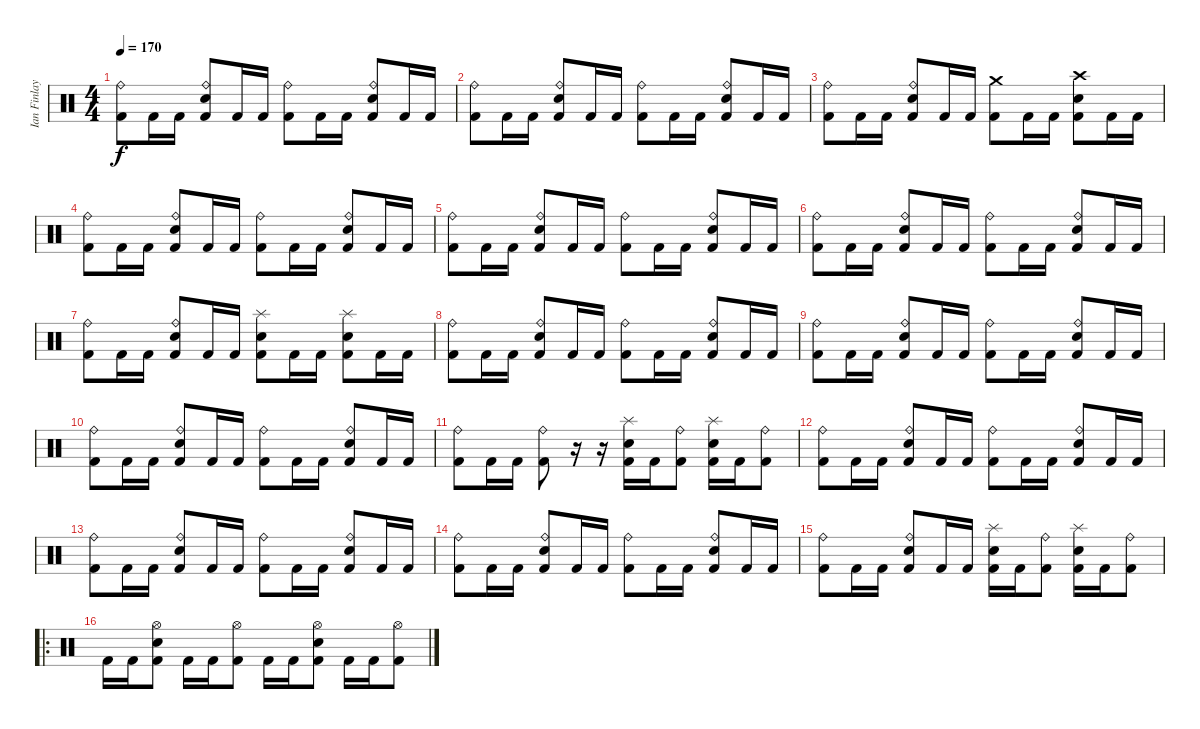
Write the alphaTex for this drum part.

\track ("Ian Finlay (Drums)" "Ian Finlay") {instrument percussion}
\staff {score}
\articulation defaults
\ts (4 4)
\tempo 170
\clef neutral
\ks c
("Kick (hit) 2" "Ride (bell)").8{dy f} "Kick (hit) 2".16 "Kick (hit) 2".16 ("Kick (hit) 2" "Snare (hit) 2" "Ride (bell)").8 "Kick (hit) 2".16 "Kick (hit) 2".16 ("Kick (hit) 2" "Ride (bell)").8 "Kick (hit) 2".16 "Kick (hit) 2".16 ("Kick (hit) 2" "Snare (hit) 2" "Ride (bell)").8 "Kick (hit) 2".16 "Kick (hit) 2".16 |
("Kick (hit) 2" "Ride (bell)").8 "Kick (hit) 2".16 "Kick (hit) 2".16 ("Kick (hit) 2" "Snare (hit) 2" "Ride (bell)").8 "Kick (hit) 2".16 "Kick (hit) 2".16 ("Kick (hit) 2" "Ride (bell)").8 "Kick (hit) 2".16 "Kick (hit) 2".16 ("Kick (hit) 2" "Snare (hit) 2" "Ride (bell)").8 "Kick (hit) 2".16 "Kick (hit) 2".16 |
("Kick (hit) 2" "Ride (bell)").8 "Kick (hit) 2".16 "Kick (hit) 2".16 ("Kick (hit) 2" "Snare (hit) 2" "Ride (bell)").8 "Kick (hit) 2".16 "Kick (hit) 2".16 ("Kick (hit) 2" "Crash medium (hit)").8 "Kick (hit) 2".16 "Kick (hit) 2".16 ("Kick (hit) 2" "Snare (hit) 2" "Crash high (hit)").8 "Kick (hit) 2".16 "Kick (hit) 2".16 |
("Kick (hit) 2" "Ride (bell)").8 "Kick (hit) 2".16 "Kick (hit) 2".16 ("Kick (hit) 2" "Snare (hit) 2" "Ride (bell)").8 "Kick (hit) 2".16 "Kick (hit) 2".16 ("Kick (hit) 2" "Ride (bell)").8 "Kick (hit) 2".16 "Kick (hit) 2".16 ("Kick (hit) 2" "Snare (hit) 2" "Ride (bell)").8 "Kick (hit) 2".16 "Kick (hit) 2".16 |
("Kick (hit) 2" "Ride (bell)").8 "Kick (hit) 2".16 "Kick (hit) 2".16 ("Kick (hit) 2" "Snare (hit) 2" "Ride (bell)").8 "Kick (hit) 2".16 "Kick (hit) 2".16 ("Kick (hit) 2" "Ride (bell)").8 "Kick (hit) 2".16 "Kick (hit) 2".16 ("Kick (hit) 2" "Snare (hit) 2" "Ride (bell)").8 "Kick (hit) 2".16 "Kick (hit) 2".16 |
("Kick (hit) 2" "Ride (bell)").8 "Kick (hit) 2".16 "Kick (hit) 2".16 ("Kick (hit) 2" "Snare (hit) 2" "Ride (bell)").8 "Kick (hit) 2".16 "Kick (hit) 2".16 ("Kick (hit) 2" "Ride (bell)").8 "Kick (hit) 2".16 "Kick (hit) 2".16 ("Kick (hit) 2" "Snare (hit) 2" "Ride (bell)").8 "Kick (hit) 2".16 "Kick (hit) 2".16 |
("Kick (hit) 2" "Ride (bell)").8 "Kick (hit) 2".16 "Kick (hit) 2".16 ("Kick (hit) 2" "Snare (hit) 2" "Ride (bell)").8 "Kick (hit) 2".16 "Kick (hit) 2".16 ("Kick (hit) 2" "Snare (hit) 2" "Splash (hit)").8 "Kick (hit) 2".16 "Kick (hit) 2".16 ("Kick (hit) 2" "Snare (hit) 2" "Splash (hit)").8 "Kick (hit) 2".16 "Kick (hit) 2".16 |
("Kick (hit) 2" "Ride (bell)").8 "Kick (hit) 2".16 "Kick (hit) 2".16 ("Kick (hit) 2" "Snare (hit) 2" "Ride (bell)").8 "Kick (hit) 2".16 "Kick (hit) 2".16 ("Kick (hit) 2" "Ride (bell)").8 "Kick (hit) 2".16 "Kick (hit) 2".16 ("Kick (hit) 2" "Snare (hit) 2" "Ride (bell)").8 "Kick (hit) 2".16 "Kick (hit) 2".16 |
("Kick (hit) 2" "Ride (bell)").8 "Kick (hit) 2".16 "Kick (hit) 2".16 ("Kick (hit) 2" "Snare (hit) 2" "Ride (bell)").8 "Kick (hit) 2".16 "Kick (hit) 2".16 ("Kick (hit) 2" "Ride (bell)").8 "Kick (hit) 2".16 "Kick (hit) 2".16 ("Kick (hit) 2" "Snare (hit) 2" "Ride (bell)").8 "Kick (hit) 2".16 "Kick (hit) 2".16 |
("Kick (hit) 2" "Ride (bell)").8 "Kick (hit) 2".16 "Kick (hit) 2".16 ("Kick (hit) 2" "Snare (hit) 2" "Ride (bell)").8 "Kick (hit) 2".16 "Kick (hit) 2".16 ("Kick (hit) 2" "Ride (bell)").8 "Kick (hit) 2".16 "Kick (hit) 2".16 ("Kick (hit) 2" "Snare (hit) 2" "Ride (bell)").8 "Kick (hit) 2".16 "Kick (hit) 2".16 |
("Kick (hit) 2" "Ride (bell)").8 "Kick (hit) 2".16 "Kick (hit) 2".16 ("Kick (hit) 2" "Ride (bell)").8 r.16 r.16 ("Kick (hit) 2" "Snare (hit) 2" "Splash (hit)").16 "Kick (hit) 2".16 ("Kick (hit) 2" "Ride (bell)").8 ("Kick (hit) 2" "Snare (hit) 2" "Splash (hit)").16 "Kick (hit) 2".16 ("Kick (hit) 2" "Ride (bell)").8 |
("Kick (hit) 2" "Ride (bell)").8 "Kick (hit) 2".16 "Kick (hit) 2".16 ("Kick (hit) 2" "Snare (hit) 2" "Ride (bell)").8 "Kick (hit) 2".16 "Kick (hit) 2".16 ("Kick (hit) 2" "Ride (bell)").8 "Kick (hit) 2".16 "Kick (hit) 2".16 ("Kick (hit) 2" "Snare (hit) 2" "Ride (bell)").8 "Kick (hit) 2".16 "Kick (hit) 2".16 |
("Kick (hit) 2" "Ride (bell)").8 "Kick (hit) 2".16 "Kick (hit) 2".16 ("Kick (hit) 2" "Snare (hit) 2" "Ride (bell)").8 "Kick (hit) 2".16 "Kick (hit) 2".16 ("Kick (hit) 2" "Ride (bell)").8 "Kick (hit) 2".16 "Kick (hit) 2".16 ("Kick (hit) 2" "Snare (hit) 2" "Ride (bell)").8 "Kick (hit) 2".16 "Kick (hit) 2".16 |
("Kick (hit) 2" "Ride (bell)").8 "Kick (hit) 2".16 "Kick (hit) 2".16 ("Kick (hit) 2" "Snare (hit) 2" "Ride (bell)").8 "Kick (hit) 2".16 "Kick (hit) 2".16 ("Kick (hit) 2" "Ride (bell)").8 "Kick (hit) 2".16 "Kick (hit) 2".16 ("Kick (hit) 2" "Snare (hit) 2" "Ride (bell)").8 "Kick (hit) 2".16 "Kick (hit) 2".16 |
("Kick (hit) 2" "Ride (bell)").8 "Kick (hit) 2".16 "Kick (hit) 2".16 ("Kick (hit) 2" "Snare (hit) 2" "Ride (bell)").8 "Kick (hit) 2".16 "Kick (hit) 2".16 ("Kick (hit) 2" "Snare (hit) 2" "Splash (hit)").16 "Kick (hit) 2".16 ("Kick (hit) 2" "Ride (bell)").8 ("Kick (hit) 2" "Snare (hit) 2" "Splash (hit)").16 "Kick (hit) 2".16 ("Kick (hit) 2" "Ride (bell)").8 |
\ro "Kick (hit) 2".16 "Kick (hit) 2".16
("Kick (hit) 2" "Hi-Hat (open)" "Snare (hit) 2").8 "Kick (hit) 2".16 "Kick (hit) 2".16 ("Kick (hit) 2" "Hi-Hat (open)").8 "Kick (hit) 2".16 "Kick (hit) 2".16 ("Kick (hit) 2" "Hi-Hat (open)" "Snare (hit) 2").8 "Kick (hit) 2".16 "Kick (hit) 2".16 ("Kick (hit) 2" "Hi-Hat (open)").8
